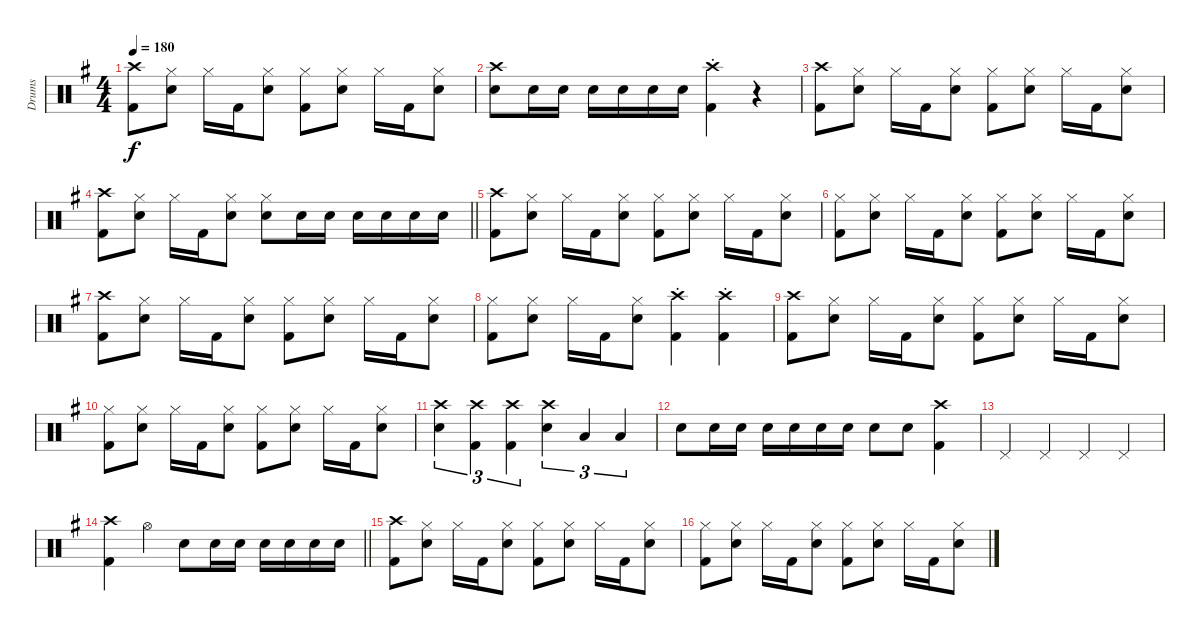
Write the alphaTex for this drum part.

\track ("Drums" "Drums") {instrument percussion}
\staff {score}
\articulation defaults
\ts (4 4)
\tempo 180
\clef neutral
\ks g
("Crash high (hit)" "Kick (hit) 2").8{dy f} ("Hi-Hat (closed)" "Snare (hit) 2").8 "Hi-Hat (closed)".16 "Kick (hit) 2".16 ("Hi-Hat (closed)" "Snare (hit) 2").8 ("Hi-Hat (closed)" "Kick (hit) 2").8 ("Hi-Hat (closed)" "Snare (hit) 2").8 "Hi-Hat (closed)".16 "Kick (hit) 2".16 ("Hi-Hat (closed)" "Snare (hit) 2").8 |
("Crash high (hit)" "Snare (hit) 2").8 "Snare (hit) 2".16 "Snare (hit) 2".16 "Snare (hit) 2".16 "Snare (hit) 2".16 "Snare (hit) 2".16 "Snare (hit) 2".16 ("Crash high (hit)"{st} "Kick (hit) 2").4 r.4 |
("Crash high (hit)" "Kick (hit) 2").8 ("Hi-Hat (closed)" "Snare (hit) 2").8 "Hi-Hat (closed)".16 "Kick (hit) 2".16 ("Hi-Hat (closed)" "Snare (hit) 2").8 ("Hi-Hat (closed)" "Kick (hit) 2").8 ("Hi-Hat (closed)" "Snare (hit) 2").8 "Hi-Hat (closed)".16 "Kick (hit) 2".16 ("Hi-Hat (closed)" "Snare (hit) 2").8 |
\barLineRight lightlight
("Crash high (hit)" "Kick (hit) 2").8 ("Hi-Hat (closed)" "Snare (hit) 2").8 "Hi-Hat (closed)".16 "Kick (hit) 2".16 ("Hi-Hat (closed)" "Snare (hit) 2").8 ("Hi-Hat (closed)" "Snare (hit) 2").8 "Snare (hit) 2".16 "Snare (hit) 2".16 "Snare (hit) 2".16 "Snare (hit) 2".16 "Snare (hit) 2".16 "Snare (hit) 2".16 |
("Crash high (hit)" "Kick (hit) 2").8 ("Hi-Hat (closed)" "Snare (hit) 2").8 "Hi-Hat (closed)".16 "Kick (hit) 2".16 ("Hi-Hat (closed)" "Snare (hit) 2").8 ("Hi-Hat (closed)" "Kick (hit) 2").8 ("Hi-Hat (closed)" "Snare (hit) 2").8 "Hi-Hat (closed)".16 "Kick (hit) 2".16 ("Hi-Hat (closed)" "Snare (hit) 2").8 |
("Hi-Hat (closed)" "Kick (hit) 2").8 ("Hi-Hat (closed)" "Snare (hit) 2").8 "Hi-Hat (closed)".16 "Kick (hit) 2".16 ("Hi-Hat (closed)" "Snare (hit) 2").8 ("Hi-Hat (closed)" "Kick (hit) 2").8 ("Hi-Hat (closed)" "Snare (hit) 2").8 "Hi-Hat (closed)".16 "Kick (hit) 2".16 ("Hi-Hat (closed)" "Snare (hit) 2").8 |
("Crash high (hit)" "Kick (hit) 2").8 ("Hi-Hat (closed)" "Snare (hit) 2").8 "Hi-Hat (closed)".16 "Kick (hit) 2".16 ("Hi-Hat (closed)" "Snare (hit) 2").8 ("Hi-Hat (closed)" "Kick (hit) 2").8 ("Hi-Hat (closed)" "Snare (hit) 2").8 "Hi-Hat (closed)".16 "Kick (hit) 2".16 ("Hi-Hat (closed)" "Snare (hit) 2").8 |
("Hi-Hat (closed)" "Kick (hit) 2").8 ("Hi-Hat (closed)" "Snare (hit) 2").8 "Hi-Hat (closed)".16 "Kick (hit) 2".16 ("Hi-Hat (closed)" "Snare (hit) 2").8 ("Crash high (hit)"{st} "Kick (hit) 2").4 ("Crash high (hit)"{st} "Kick (hit) 2").4 |
("Crash high (hit)" "Kick (hit) 2").8 ("Hi-Hat (closed)" "Snare (hit) 2").8 "Hi-Hat (closed)".16 "Kick (hit) 2".16 ("Hi-Hat (closed)" "Snare (hit) 2").8 ("Hi-Hat (closed)" "Kick (hit) 2").8 ("Hi-Hat (closed)" "Snare (hit) 2").8 "Hi-Hat (closed)".16 "Kick (hit) 2".16 ("Hi-Hat (closed)" "Snare (hit) 2").8 |
("Hi-Hat (closed)" "Kick (hit) 2").8 ("Hi-Hat (closed)" "Snare (hit) 2").8 "Hi-Hat (closed)".16 "Kick (hit) 2".16 ("Hi-Hat (closed)" "Snare (hit) 2").8 ("Hi-Hat (closed)" "Kick (hit) 2").8 ("Hi-Hat (closed)" "Snare (hit) 2").8 "Hi-Hat (closed)".16 "Kick (hit) 2".16 ("Hi-Hat (closed)" "Snare (hit) 2").8 |
("Crash high (hit)" "Snare (hit) 2").4{tu (3 2)} ("Crash high (hit)" "Kick (hit) 2").4{tu (3 2)} ("Crash high (hit)" "Kick (hit) 2").4{tu (3 2)} ("Crash high (hit)" "Snare (hit) 2").4{tu (3 2)} "Low Tom (hit)".4{tu (3 2)} "Low Floor Tom (hit)".4{tu (3 2)} |
"Snare (hit) 2".8 "Snare (hit) 2".16 "Snare (hit) 2".16 "Snare (hit) 2".16 "Snare (hit) 2".16 "Snare (hit) 2".16 "Snare (hit) 2".16 "Snare (hit) 2".8 "Snare (hit) 2".8 ("Crash high (hit)" "Kick (hit) 2").4 |
"Pedal Hi-Hat (hit)".4 "Pedal Hi-Hat (hit)".4 "Pedal Hi-Hat (hit)".4 "Pedal Hi-Hat (hit)".4 |
\barLineRight lightlight
("Crash high (hit)" "Kick (hit) 2").4 "Hi-Hat (open)".4 "Snare (hit) 2".8 "Snare (hit) 2".16 "Snare (hit) 2".16 "Snare (hit) 2".16 "Snare (hit) 2".16 "Snare (hit) 2".16 "Snare (hit) 2".16 |
("Crash high (hit)" "Kick (hit) 2").8 ("Hi-Hat (closed)" "Snare (hit) 2").8 "Hi-Hat (closed)".16 "Kick (hit) 2".16 ("Hi-Hat (closed)" "Snare (hit) 2").8 ("Hi-Hat (closed)" "Kick (hit) 2").8 ("Hi-Hat (closed)" "Snare (hit) 2").8 "Hi-Hat (closed)".16 "Kick (hit) 2".16 ("Hi-Hat (closed)" "Snare (hit) 2").8 |
("Hi-Hat (closed)" "Kick (hit) 2").8 ("Hi-Hat (closed)" "Snare (hit) 2").8 "Hi-Hat (closed)".16 "Kick (hit) 2".16 ("Hi-Hat (closed)" "Snare (hit) 2").8 ("Hi-Hat (closed)" "Kick (hit) 2").8 ("Hi-Hat (closed)" "Snare (hit) 2").8 "Hi-Hat (closed)".16 "Kick (hit) 2".16 ("Hi-Hat (closed)" "Snare (hit) 2").8
